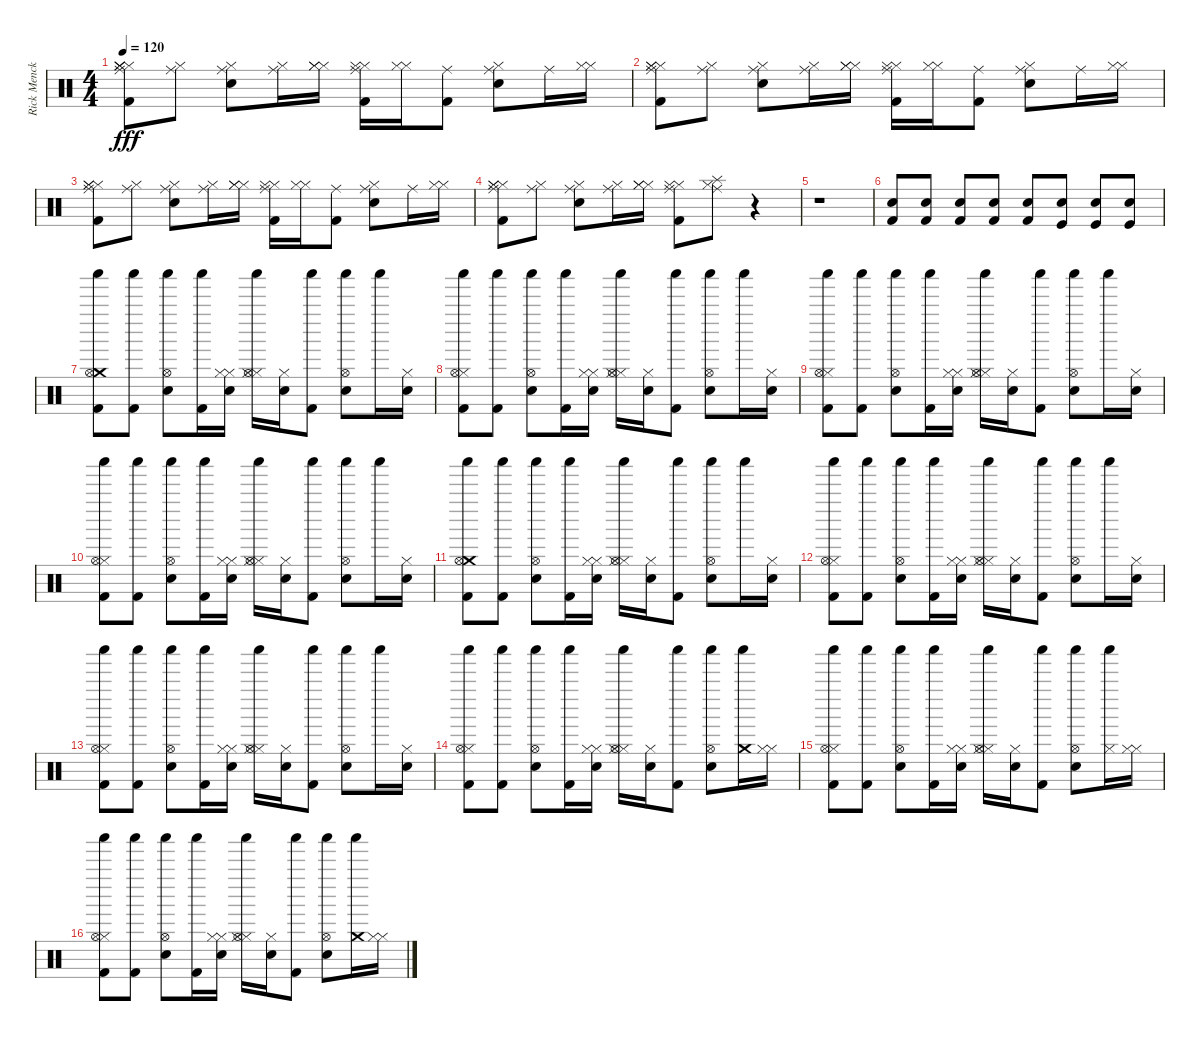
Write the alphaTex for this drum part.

\track ("Rick Menck" "Rick Menck") {instrument percussion}
\staff {score}
\articulation defaults
\ts (4 4)
\tempo 120
\clef neutral
\ks c
("Ride (middle)" "Hi-Hat (closed)" "Hi-Hat (closed)" "Kick (hit) 2" "Hi-Hat (closed)" "Hi-Hat (closed)").8{dy fff} ("Ride (middle)" "Hi-Hat (closed)").8 ("Ride (middle)" "Snare (hit) 2" "Hi-Hat (closed)").8 ("Ride (middle)" "Hi-Hat (closed)").16 ("Hi-Hat (closed)" "Hi-Hat (closed)" "Hi-Hat (closed)").16 ("Ride (middle)" "Kick (hit) 2" "Hi-Hat (closed)" "Hi-Hat (closed)").16 ("Hi-Hat (closed)" "Hi-Hat (closed)").16 ("Ride (middle)" "Kick (hit) 2").8 ("Ride (middle)" "Snare (hit) 2" "Hi-Hat (closed)").8 "Ride (middle)".16 ("Hi-Hat (closed)" "Hi-Hat (closed)").16 |
("Ride (middle)" "Hi-Hat (closed)" "Kick (hit) 2" "Hi-Hat (closed)" "Hi-Hat (closed)").8 ("Ride (middle)" "Hi-Hat (closed)").8 ("Ride (middle)" "Snare (hit) 2" "Hi-Hat (closed)").8 ("Ride (middle)" "Hi-Hat (closed)").16 ("Hi-Hat (closed)" "Hi-Hat (closed)" "Hi-Hat (closed)").16 ("Ride (middle)" "Kick (hit) 2" "Hi-Hat (closed)" "Hi-Hat (closed)").16 ("Hi-Hat (closed)" "Hi-Hat (closed)").16 ("Ride (middle)" "Kick (hit) 2").8 ("Ride (middle)" "Snare (hit) 2" "Hi-Hat (closed)").8 "Ride (middle)".16 ("Hi-Hat (closed)" "Hi-Hat (closed)").16 |
("Ride (middle)" "Hi-Hat (closed)" "Kick (hit) 2" "Hi-Hat (closed)" "Hi-Hat (closed)").8 ("Ride (middle)" "Hi-Hat (closed)").8 ("Ride (middle)" "Snare (hit) 2" "Hi-Hat (closed)").8 ("Ride (middle)" "Hi-Hat (closed)").16 ("Hi-Hat (closed)" "Hi-Hat (closed)" "Hi-Hat (closed)").16 ("Ride (middle)" "Kick (hit) 2" "Hi-Hat (closed)" "Hi-Hat (closed)").16 ("Hi-Hat (closed)" "Hi-Hat (closed)").16 ("Ride (middle)" "Kick (hit) 2").8 ("Ride (middle)" "Snare (hit) 2" "Hi-Hat (closed)").8 "Ride (middle)".16 ("Hi-Hat (closed)" "Hi-Hat (closed)").16 |
("Ride (middle)" "Hi-Hat (closed)" "Kick (hit) 2" "Hi-Hat (closed)" "Hi-Hat (closed)").8 ("Ride (middle)" "Hi-Hat (closed)").8 ("Ride (middle)" "Snare (hit) 2" "Hi-Hat (closed)").8 ("Ride (middle)" "Hi-Hat (closed)").16 ("Hi-Hat (closed)" "Hi-Hat (closed)" "Hi-Hat (closed)").16 ("Ride (middle)" "Kick (hit) 2" "Hi-Hat (closed)" "Hi-Hat (closed)").8 ("Ride (middle)" "Hi-Hat (closed)" "Splash (hit)").8 r.4 |
r.1 |
("Kick (hit) 2" "Snare (hit) 2").8 ("Kick (hit) 2" "Snare (hit) 2").8 ("Kick (hit) 2" "Snare (hit) 2").8 ("Kick (hit) 2" "Snare (hit) 2").8 ("Kick (hit) 2" "Snare (hit) 2").8 ("Kick (hit)" "Snare (hit) 2").8 ("Kick (hit)" "Snare (hit) 2").8 ("Kick (hit)" "Snare (hit) 2").8 |
("Shaker (hit)" "Kick (hit) 2" "Crash medium (hit)" "Hi-Hat (open)").8 ("Shaker (hit)" "Kick (hit) 2").8 ("Shaker (hit)" "Snare (hit) 2" "Hi-Hat (open)").8 ("Shaker (hit)" "Kick (hit) 2").16 ("Hi-Hat (closed)" "Snare (hit) 2" "Hi-Hat (closed)").16 ("Shaker (hit)" "Hi-Hat (closed)" "Hi-Hat (open)" "Hi-Hat (closed)").16 ("Hi-Hat (closed)" "Snare (hit) 2").16 ("Shaker (hit)" "Kick (hit) 2").8 ("Shaker (hit)" "Snare (hit) 2" "Hi-Hat (open)").8 "Shaker (hit)".16 ("Hi-Hat (closed)" "Snare (hit) 2").16 |
("Shaker (hit)" "Kick (hit) 2" "Hi-Hat (closed)" "Hi-Hat (open)").8 ("Shaker (hit)" "Kick (hit) 2").8 ("Shaker (hit)" "Snare (hit) 2" "Hi-Hat (open)").8 ("Shaker (hit)" "Kick (hit) 2").16 ("Hi-Hat (closed)" "Snare (hit) 2" "Hi-Hat (closed)").16 ("Shaker (hit)" "Hi-Hat (closed)" "Hi-Hat (open)" "Hi-Hat (closed)").16 ("Hi-Hat (closed)" "Snare (hit) 2").16 ("Shaker (hit)" "Kick (hit) 2").8 ("Shaker (hit)" "Snare (hit) 2" "Hi-Hat (open)").8 "Shaker (hit)".16 ("Hi-Hat (closed)" "Snare (hit) 2").16 |
("Shaker (hit)" "Kick (hit) 2" "Hi-Hat (closed)" "Hi-Hat (open)").8 ("Shaker (hit)" "Kick (hit) 2").8 ("Shaker (hit)" "Snare (hit) 2" "Hi-Hat (open)").8 ("Shaker (hit)" "Kick (hit) 2").16 ("Hi-Hat (closed)" "Snare (hit) 2" "Hi-Hat (closed)").16 ("Shaker (hit)" "Hi-Hat (closed)" "Hi-Hat (open)" "Hi-Hat (closed)").16 ("Hi-Hat (closed)" "Snare (hit) 2").16 ("Shaker (hit)" "Kick (hit) 2").8 ("Shaker (hit)" "Snare (hit) 2" "Hi-Hat (open)").8 "Shaker (hit)".16 ("Hi-Hat (closed)" "Snare (hit) 2").16 |
("Shaker (hit)" "Kick (hit) 2" "Hi-Hat (closed)" "Hi-Hat (open)").8 ("Shaker (hit)" "Kick (hit) 2").8 ("Shaker (hit)" "Snare (hit) 2" "Hi-Hat (open)").8 ("Shaker (hit)" "Kick (hit) 2").16 ("Hi-Hat (closed)" "Snare (hit) 2" "Hi-Hat (closed)").16 ("Shaker (hit)" "Hi-Hat (closed)" "Hi-Hat (open)" "Hi-Hat (closed)").16 ("Hi-Hat (closed)" "Snare (hit) 2").16 ("Shaker (hit)" "Kick (hit) 2").8 ("Shaker (hit)" "Snare (hit) 2" "Hi-Hat (open)").8 "Shaker (hit)".16 ("Hi-Hat (closed)" "Snare (hit) 2").16 |
("Shaker (hit)" "Kick (hit) 2" "Crash medium (hit)" "Hi-Hat (open)").8 ("Shaker (hit)" "Kick (hit) 2").8 ("Shaker (hit)" "Snare (hit) 2" "Hi-Hat (open)").8 ("Shaker (hit)" "Kick (hit) 2").16 ("Hi-Hat (closed)" "Snare (hit) 2" "Hi-Hat (closed)").16 ("Shaker (hit)" "Hi-Hat (closed)" "Hi-Hat (open)" "Hi-Hat (closed)").16 ("Hi-Hat (closed)" "Snare (hit) 2").16 ("Shaker (hit)" "Kick (hit) 2").8 ("Shaker (hit)" "Snare (hit) 2" "Hi-Hat (open)").8 "Shaker (hit)".16 ("Hi-Hat (closed)" "Snare (hit) 2").16 |
("Shaker (hit)" "Kick (hit) 2" "Hi-Hat (closed)" "Hi-Hat (open)").8 ("Shaker (hit)" "Kick (hit) 2").8 ("Shaker (hit)" "Snare (hit) 2" "Hi-Hat (open)").8 ("Shaker (hit)" "Kick (hit) 2").16 ("Hi-Hat (closed)" "Snare (hit) 2" "Hi-Hat (closed)").16 ("Shaker (hit)" "Hi-Hat (closed)" "Hi-Hat (open)" "Hi-Hat (closed)").16 ("Hi-Hat (closed)" "Snare (hit) 2").16 ("Shaker (hit)" "Kick (hit) 2").8 ("Shaker (hit)" "Snare (hit) 2" "Hi-Hat (open)").8 "Shaker (hit)".16 ("Hi-Hat (closed)" "Snare (hit) 2").16 |
("Shaker (hit)" "Kick (hit) 2" "Hi-Hat (closed)" "Hi-Hat (open)").8 ("Shaker (hit)" "Kick (hit) 2").8 ("Shaker (hit)" "Snare (hit) 2" "Hi-Hat (open)").8 ("Shaker (hit)" "Kick (hit) 2").16 ("Hi-Hat (closed)" "Snare (hit) 2" "Hi-Hat (closed)").16 ("Shaker (hit)" "Hi-Hat (closed)" "Hi-Hat (open)" "Hi-Hat (closed)").16 ("Hi-Hat (closed)" "Snare (hit) 2").16 ("Shaker (hit)" "Kick (hit) 2").8 ("Shaker (hit)" "Snare (hit) 2" "Hi-Hat (open)").8 "Shaker (hit)".16 ("Hi-Hat (closed)" "Snare (hit) 2").16 |
("Shaker (hit)" "Kick (hit) 2" "Hi-Hat (closed)" "Hi-Hat (open)").8 ("Shaker (hit)" "Kick (hit) 2").8 ("Shaker (hit)" "Snare (hit) 2" "Hi-Hat (open)").8 ("Shaker (hit)" "Kick (hit) 2").16 ("Hi-Hat (closed)" "Snare (hit) 2" "Hi-Hat (closed)").16 ("Shaker (hit)" "Hi-Hat (closed)" "Hi-Hat (open)" "Hi-Hat (closed)").16 ("Hi-Hat (closed)" "Snare (hit) 2").16 ("Shaker (hit)" "Kick (hit) 2").8 ("Shaker (hit)" "Snare (hit) 2" "Hi-Hat (open)").8 ("Shaker (hit)" "Crash medium (hit)").16 ("Hi-Hat (closed)" "Hi-Hat (closed)").16 |
("Shaker (hit)" "Kick (hit) 2" "Hi-Hat (closed)" "Hi-Hat (open)").8 ("Shaker (hit)" "Kick (hit) 2").8 ("Shaker (hit)" "Snare (hit) 2" "Hi-Hat (open)").8 ("Shaker (hit)" "Kick (hit) 2").16 ("Hi-Hat (closed)" "Snare (hit) 2" "Hi-Hat (closed)").16 ("Shaker (hit)" "Hi-Hat (closed)" "Hi-Hat (open)" "Hi-Hat (closed)").16 ("Hi-Hat (closed)" "Snare (hit) 2").16 ("Shaker (hit)" "Kick (hit) 2").8 ("Shaker (hit)" "Snare (hit) 2" "Hi-Hat (open)").8 ("Shaker (hit)" "Hi-Hat (closed)").16 ("Hi-Hat (closed)" "Hi-Hat (closed)").16 |
("Shaker (hit)" "Kick (hit) 2" "Hi-Hat (closed)" "Hi-Hat (open)").8 ("Shaker (hit)" "Kick (hit) 2").8 ("Shaker (hit)" "Snare (hit) 2" "Hi-Hat (open)").8 ("Shaker (hit)" "Kick (hit) 2").16 ("Hi-Hat (closed)" "Snare (hit) 2" "Hi-Hat (closed)").16 ("Shaker (hit)" "Hi-Hat (closed)" "Hi-Hat (open)" "Hi-Hat (closed)").16 ("Hi-Hat (closed)" "Snare (hit) 2").16 ("Shaker (hit)" "Kick (hit) 2").8 ("Shaker (hit)" "Snare (hit) 2" "Hi-Hat (open)").8 ("Shaker (hit)" "Crash medium (hit)").16 ("Hi-Hat (closed)" "Hi-Hat (closed)").16
